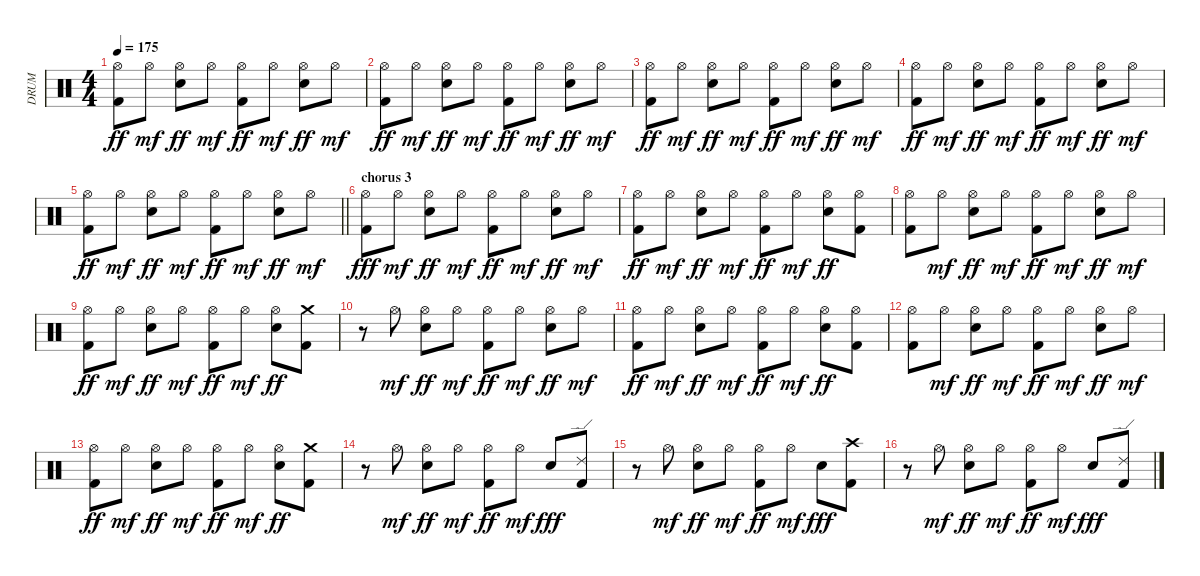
\track ("DRUM" "DRUM") {instrument percussion}
\staff {score}
\articulation defaults
\ts (4 4)
\tempo 175
\clef neutral
\ks c
("Hi-Hat (open)" "Kick (hit) 2").8{dy ff} "Hi-Hat (open)".8{dy mf} ("Hi-Hat (open)" "Snare (hit) 2").8{dy ff} "Hi-Hat (open)".8{dy mf} ("Hi-Hat (open)" "Kick (hit) 2").8{dy ff} "Hi-Hat (open)".8{dy mf} ("Hi-Hat (open)" "Snare (hit) 2").8{dy ff} "Hi-Hat (open)".8{dy mf} |
("Hi-Hat (open)" "Kick (hit) 2").8{dy ff} "Hi-Hat (open)".8{dy mf} ("Hi-Hat (open)" "Snare (hit) 2").8{dy ff} "Hi-Hat (open)".8{dy mf} ("Hi-Hat (open)" "Kick (hit) 2").8{dy ff} "Hi-Hat (open)".8{dy mf} ("Hi-Hat (open)" "Snare (hit) 2").8{dy ff} "Hi-Hat (open)".8{dy mf} |
("Hi-Hat (open)" "Kick (hit) 2").8{dy ff} "Hi-Hat (open)".8{dy mf} ("Hi-Hat (open)" "Snare (hit) 2").8{dy ff} "Hi-Hat (open)".8{dy mf} ("Hi-Hat (open)" "Kick (hit) 2").8{dy ff} "Hi-Hat (open)".8{dy mf} ("Hi-Hat (open)" "Snare (hit) 2").8{dy ff} "Hi-Hat (open)".8{dy mf} |
("Hi-Hat (open)" "Kick (hit) 2").8{dy ff} "Hi-Hat (open)".8{dy mf} ("Hi-Hat (open)" "Snare (hit) 2").8{dy ff} "Hi-Hat (open)".8{dy mf} ("Hi-Hat (open)" "Kick (hit) 2").8{dy ff} "Hi-Hat (open)".8{dy mf} ("Hi-Hat (open)" "Snare (hit) 2").8{dy ff} "Hi-Hat (open)".8{dy mf} |
\barLineRight lightlight
("Hi-Hat (open)" "Kick (hit) 2").8{dy ff} "Hi-Hat (open)".8{dy mf} ("Hi-Hat (open)" "Snare (hit) 2").8{dy ff} "Hi-Hat (open)".8{dy mf} ("Hi-Hat (open)" "Kick (hit) 2").8{dy ff} "Hi-Hat (open)".8{dy mf} ("Hi-Hat (open)" "Snare (hit) 2").8{dy ff} "Hi-Hat (open)".8{dy mf} |
\section ("" "chorus 3")
("Hi-Hat (open)" "Kick (hit) 2").8{dy fff} "Hi-Hat (open)".8{dy mf} ("Hi-Hat (open)" "Snare (hit) 2").8{dy ff} "Hi-Hat (open)".8{dy mf} ("Hi-Hat (open)" "Kick (hit) 2").8{dy ff} "Hi-Hat (open)".8{dy mf} ("Hi-Hat (open)" "Snare (hit) 2").8{dy ff} "Hi-Hat (open)".8{dy mf} |
("Hi-Hat (open)" "Kick (hit) 2").8{dy ff} "Hi-Hat (open)".8{dy mf} ("Hi-Hat (open)" "Snare (hit) 2").8{dy ff} "Hi-Hat (open)".8{dy mf} ("Hi-Hat (open)" "Kick (hit) 2").8{dy ff} "Hi-Hat (open)".8{dy mf} ("Hi-Hat (open)" "Snare (hit) 2").8{dy ff} ("Hi-Hat (open)" "Kick (hit) 2").8 |
("Hi-Hat (open)" "Kick (hit) 2").8 "Hi-Hat (open)".8{dy mf} ("Hi-Hat (open)" "Snare (hit) 2").8{dy ff} "Hi-Hat (open)".8{dy mf} ("Hi-Hat (open)" "Kick (hit) 2").8{dy ff} "Hi-Hat (open)".8{dy mf} ("Hi-Hat (open)" "Snare (hit) 2").8{dy ff} "Hi-Hat (open)".8{dy mf} |
("Hi-Hat (open)" "Kick (hit) 2").8{dy ff} "Hi-Hat (open)".8{dy mf} ("Hi-Hat (open)" "Snare (hit) 2").8{dy ff} "Hi-Hat (open)".8{dy mf} ("Hi-Hat (open)" "Kick (hit) 2").8{dy ff} "Hi-Hat (open)".8{dy mf} ("Hi-Hat (open)" "Snare (hit) 2").8{dy ff} ("Crash medium (hit)" "Kick (hit) 2").8 |
r.8 "Hi-Hat (open)".8{dy mf} ("Hi-Hat (open)" "Snare (hit) 2").8{dy ff} "Hi-Hat (open)".8{dy mf} ("Hi-Hat (open)" "Kick (hit) 2").8{dy ff} "Hi-Hat (open)".8{dy mf} ("Hi-Hat (open)" "Snare (hit) 2").8{dy ff} "Hi-Hat (open)".8{dy mf} |
("Hi-Hat (open)" "Kick (hit) 2").8{dy ff} "Hi-Hat (open)".8{dy mf} ("Hi-Hat (open)" "Snare (hit) 2").8{dy ff} "Hi-Hat (open)".8{dy mf} ("Hi-Hat (open)" "Kick (hit) 2").8{dy ff} "Hi-Hat (open)".8{dy mf} ("Hi-Hat (open)" "Snare (hit) 2").8{dy ff} ("Hi-Hat (open)" "Kick (hit) 2").8 |
("Hi-Hat (open)" "Kick (hit) 2").8 "Hi-Hat (open)".8{dy mf} ("Hi-Hat (open)" "Snare (hit) 2").8{dy ff} "Hi-Hat (open)".8{dy mf} ("Hi-Hat (open)" "Kick (hit) 2").8{dy ff} "Hi-Hat (open)".8{dy mf} ("Hi-Hat (open)" "Snare (hit) 2").8{dy ff} "Hi-Hat (open)".8{dy mf} |
("Hi-Hat (open)" "Kick (hit) 2").8{dy ff} "Hi-Hat (open)".8{dy mf} ("Hi-Hat (open)" "Snare (hit) 2").8{dy ff} "Hi-Hat (open)".8{dy mf} ("Hi-Hat (open)" "Kick (hit) 2").8{dy ff} "Hi-Hat (open)".8{dy mf} ("Hi-Hat (open)" "Snare (hit) 2").8{dy ff} ("Crash medium (hit)" "Kick (hit) 2").8 |
r.8 "Hi-Hat (open)".8{dy mf} ("Hi-Hat (open)" "Snare (hit) 2").8{dy ff} "Hi-Hat (open)".8{dy mf} ("Hi-Hat (open)" "Kick (hit) 2").8{dy ff} "Hi-Hat (open)".8{dy mf} "Snare (hit) 2".8{dy fff} ("Ride (edge) 2" "Kick (hit) 2").8 |
r.8 "Hi-Hat (open)".8{dy mf} ("Hi-Hat (open)" "Snare (hit) 2").8{dy ff} "Hi-Hat (open)".8{dy mf} ("Hi-Hat (open)" "Kick (hit) 2").8{dy ff} "Hi-Hat (open)".8{dy mf} "Snare (hit) 2".8{dy fff} ("Crash high (hit)" "Kick (hit) 2").8 |
r.8 "Hi-Hat (open)".8{dy mf} ("Hi-Hat (open)" "Snare (hit) 2").8{dy ff} "Hi-Hat (open)".8{dy mf} ("Hi-Hat (open)" "Kick (hit) 2").8{dy ff} "Hi-Hat (open)".8{dy mf} "Snare (hit) 2".8{dy fff} ("Ride (edge) 2" "Kick (hit) 2").8
